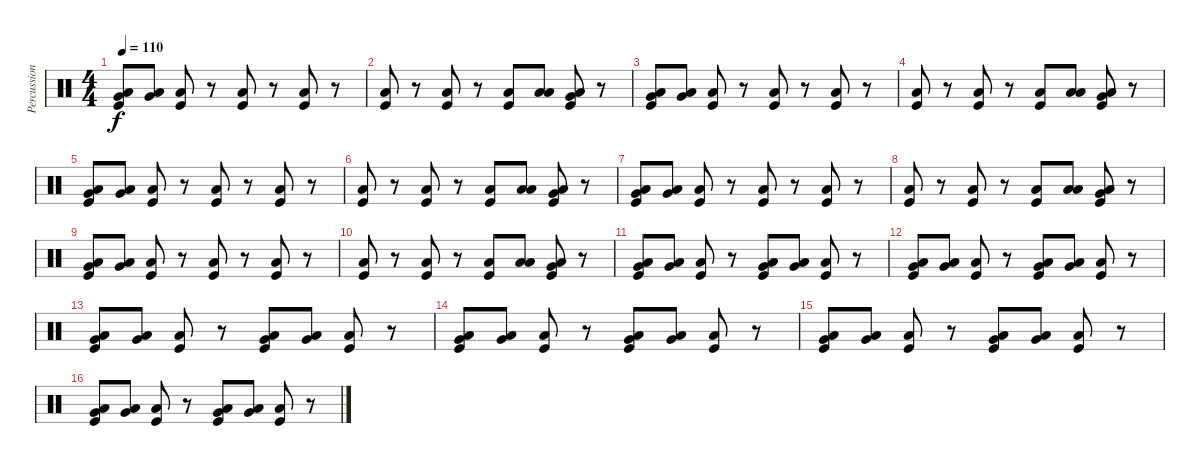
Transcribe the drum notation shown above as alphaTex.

\track ("Percussion" "Percussion") {instrument percussion}
\staff {score}
\articulation defaults
\ts (4 4)
\tempo 110
\clef neutral
\ks c
("Low Tom (hit)" "Very Low Tom (hit)" "Kick (hit)").8{dy f} ("Low Tom (hit)" "Very Low Tom (hit)").8 ("Low Floor Tom (hit)" "Kick (hit)").8 r.8 ("Low Floor Tom (hit)" "Kick (hit)").8 r.8 ("Low Floor Tom (hit)" "Kick (hit)").8 r.8 |
("Low Floor Tom (hit)" "Kick (hit)").8 r.8 ("Low Floor Tom (hit)" "Kick (hit)").8 r.8 ("Low Floor Tom (hit)" "Kick (hit)").8 ("Low Tom (hit)" "Low Tom (hit)").8 ("Low Floor Tom (hit)" "Very Low Tom (hit)" "Kick (hit)").8 r.8 |
("Low Tom (hit)" "Very Low Tom (hit)" "Kick (hit)").8 ("Low Tom (hit)" "Very Low Tom (hit)").8 ("Low Floor Tom (hit)" "Kick (hit)").8 r.8 ("Low Floor Tom (hit)" "Kick (hit)").8 r.8 ("Low Floor Tom (hit)" "Kick (hit)").8 r.8 |
("Low Floor Tom (hit)" "Kick (hit)").8 r.8 ("Low Floor Tom (hit)" "Kick (hit)").8 r.8 ("Low Floor Tom (hit)" "Kick (hit)").8 ("Low Tom (hit)" "Low Tom (hit)").8 ("Low Floor Tom (hit)" "Very Low Tom (hit)" "Kick (hit)").8 r.8 |
("Low Tom (hit)" "Very Low Tom (hit)" "Kick (hit)").8 ("Low Tom (hit)" "Very Low Tom (hit)").8 ("Low Floor Tom (hit)" "Kick (hit)").8 r.8 ("Low Floor Tom (hit)" "Kick (hit)").8 r.8 ("Low Floor Tom (hit)" "Kick (hit)").8 r.8 |
("Low Floor Tom (hit)" "Kick (hit)").8 r.8 ("Low Floor Tom (hit)" "Kick (hit)").8 r.8 ("Low Floor Tom (hit)" "Kick (hit)").8 ("Low Tom (hit)" "Low Tom (hit)").8 ("Low Floor Tom (hit)" "Very Low Tom (hit)" "Kick (hit)").8 r.8 |
("Low Tom (hit)" "Very Low Tom (hit)" "Kick (hit)").8 ("Low Tom (hit)" "Very Low Tom (hit)").8 ("Low Floor Tom (hit)" "Kick (hit)").8 r.8 ("Low Floor Tom (hit)" "Kick (hit)").8 r.8 ("Low Floor Tom (hit)" "Kick (hit)").8 r.8 |
("Low Floor Tom (hit)" "Kick (hit)").8 r.8 ("Low Floor Tom (hit)" "Kick (hit)").8 r.8 ("Low Floor Tom (hit)" "Kick (hit)").8 ("Low Tom (hit)" "Low Tom (hit)").8 ("Low Floor Tom (hit)" "Very Low Tom (hit)" "Kick (hit)").8 r.8 |
("Low Tom (hit)" "Very Low Tom (hit)" "Kick (hit)").8 ("Low Tom (hit)" "Very Low Tom (hit)").8 ("Low Floor Tom (hit)" "Kick (hit)").8 r.8 ("Low Floor Tom (hit)" "Kick (hit)").8 r.8 ("Low Floor Tom (hit)" "Kick (hit)").8 r.8 |
("Low Floor Tom (hit)" "Kick (hit)").8 r.8 ("Low Floor Tom (hit)" "Kick (hit)").8 r.8 ("Low Floor Tom (hit)" "Kick (hit)").8 ("Low Tom (hit)" "Low Tom (hit)").8 ("Low Floor Tom (hit)" "Very Low Tom (hit)" "Kick (hit)").8 r.8 |
("Low Tom (hit)" "Very Low Tom (hit)" "Kick (hit)").8 ("Low Tom (hit)" "Very Low Tom (hit)").8 ("Low Floor Tom (hit)" "Kick (hit)").8 r.8 ("Low Tom (hit)" "Very Low Tom (hit)" "Kick (hit)").8 ("Low Tom (hit)" "Very Low Tom (hit)").8 ("Low Floor Tom (hit)" "Kick (hit)").8 r.8 |
("Low Tom (hit)" "Very Low Tom (hit)" "Kick (hit)").8 ("Low Tom (hit)" "Very Low Tom (hit)").8 ("Low Floor Tom (hit)" "Kick (hit)").8 r.8 ("Low Tom (hit)" "Very Low Tom (hit)" "Kick (hit)").8 ("Low Tom (hit)" "Very Low Tom (hit)").8 ("Low Floor Tom (hit)" "Kick (hit)").8 r.8 |
("Low Tom (hit)" "Very Low Tom (hit)" "Kick (hit)").8 ("Low Tom (hit)" "Very Low Tom (hit)").8 ("Low Floor Tom (hit)" "Kick (hit)").8 r.8 ("Low Tom (hit)" "Very Low Tom (hit)" "Kick (hit)").8 ("Low Tom (hit)" "Very Low Tom (hit)").8 ("Low Floor Tom (hit)" "Kick (hit)").8 r.8 |
("Low Tom (hit)" "Very Low Tom (hit)" "Kick (hit)").8 ("Low Tom (hit)" "Very Low Tom (hit)").8 ("Low Floor Tom (hit)" "Kick (hit)").8 r.8 ("Low Tom (hit)" "Very Low Tom (hit)" "Kick (hit)").8 ("Low Tom (hit)" "Very Low Tom (hit)").8 ("Low Floor Tom (hit)" "Kick (hit)").8 r.8 |
("Low Tom (hit)" "Very Low Tom (hit)" "Kick (hit)").8 ("Low Tom (hit)" "Very Low Tom (hit)").8 ("Low Floor Tom (hit)" "Kick (hit)").8 r.8 ("Low Tom (hit)" "Very Low Tom (hit)" "Kick (hit)").8 ("Low Tom (hit)" "Very Low Tom (hit)").8 ("Low Floor Tom (hit)" "Kick (hit)").8 r.8 |
("Low Tom (hit)" "Very Low Tom (hit)" "Kick (hit)").8 ("Low Tom (hit)" "Very Low Tom (hit)").8 ("Low Floor Tom (hit)" "Kick (hit)").8 r.8 ("Low Tom (hit)" "Very Low Tom (hit)" "Kick (hit)").8 ("Low Tom (hit)" "Very Low Tom (hit)").8 ("Low Floor Tom (hit)" "Kick (hit)").8 r.8
